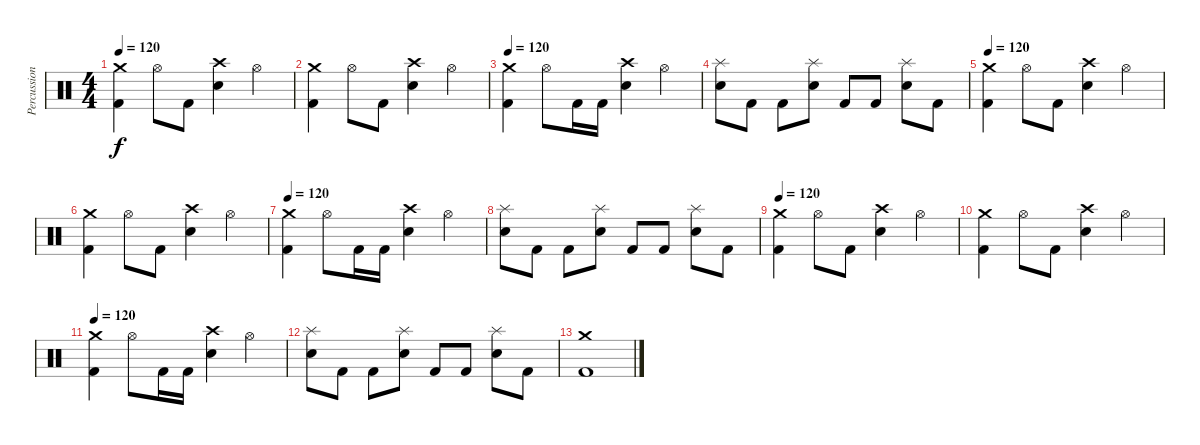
\track ("Percussions" "Percussion") {instrument percussion}
\staff {score}
\articulation defaults
\ts (4 4)
\tempo 120
\clef neutral
\ks c
("Crash medium (hit)" "Kick (hit) 2").4{dy f} "Hi-Hat (open)".8 "Kick (hit) 2".8 ("Crash high (hit)" "Electric Snare (hit)").4 "Hi-Hat (open)".4 |
("Crash medium (hit)" "Kick (hit) 2").4 "Hi-Hat (open)".8 "Kick (hit) 2".8 ("Crash high (hit)" "Electric Snare (hit)").4 "Hi-Hat (open)".4 |
\tempo 120
("Crash medium (hit)" "Kick (hit) 2").4 "Hi-Hat (open)".8 "Kick (hit) 2".16 "Kick (hit) 2".16 ("Crash high (hit)" "Electric Snare (hit)").4 "Hi-Hat (open)".4 |
("Splash (hit)" "Electric Snare (hit)").8 "Kick (hit) 2".8 "Kick (hit) 2".8 ("Splash (hit)" "Electric Snare (hit)").8 "Kick (hit) 2".8 "Kick (hit) 2".8 ("Splash (hit)" "Electric Snare (hit)").8 "Kick (hit) 2".8 |
\tempo 120
("Crash medium (hit)" "Kick (hit) 2").4 "Hi-Hat (open)".8 "Kick (hit) 2".8 ("Crash high (hit)" "Electric Snare (hit)").4 "Hi-Hat (open)".4 |
("Crash medium (hit)" "Kick (hit) 2").4 "Hi-Hat (open)".8 "Kick (hit) 2".8 ("Crash high (hit)" "Electric Snare (hit)").4 "Hi-Hat (open)".4 |
\tempo 120
("Crash medium (hit)" "Kick (hit) 2").4 "Hi-Hat (open)".8 "Kick (hit) 2".16 "Kick (hit) 2".16 ("Crash high (hit)" "Electric Snare (hit)").4 "Hi-Hat (open)".4 |
("Splash (hit)" "Electric Snare (hit)").8 "Kick (hit) 2".8 "Kick (hit) 2".8 ("Splash (hit)" "Electric Snare (hit)").8 "Kick (hit) 2".8 "Kick (hit) 2".8 ("Splash (hit)" "Electric Snare (hit)").8 "Kick (hit) 2".8 |
\tempo 120
("Crash medium (hit)" "Kick (hit) 2").4 "Hi-Hat (open)".8 "Kick (hit) 2".8 ("Crash high (hit)" "Electric Snare (hit)").4 "Hi-Hat (open)".4 |
("Crash medium (hit)" "Kick (hit) 2").4 "Hi-Hat (open)".8 "Kick (hit) 2".8 ("Crash high (hit)" "Electric Snare (hit)").4 "Hi-Hat (open)".4 |
\tempo 120
("Crash medium (hit)" "Kick (hit) 2").4 "Hi-Hat (open)".8 "Kick (hit) 2".16 "Kick (hit) 2".16 ("Crash high (hit)" "Electric Snare (hit)").4 "Hi-Hat (open)".4 |
("Splash (hit)" "Electric Snare (hit)").8 "Kick (hit) 2".8 "Kick (hit) 2".8 ("Splash (hit)" "Electric Snare (hit)").8 "Kick (hit) 2".8 "Kick (hit) 2".8 ("Splash (hit)" "Electric Snare (hit)").8 "Kick (hit) 2".8 |
("Crash medium (hit)" "Kick (hit) 2").1
